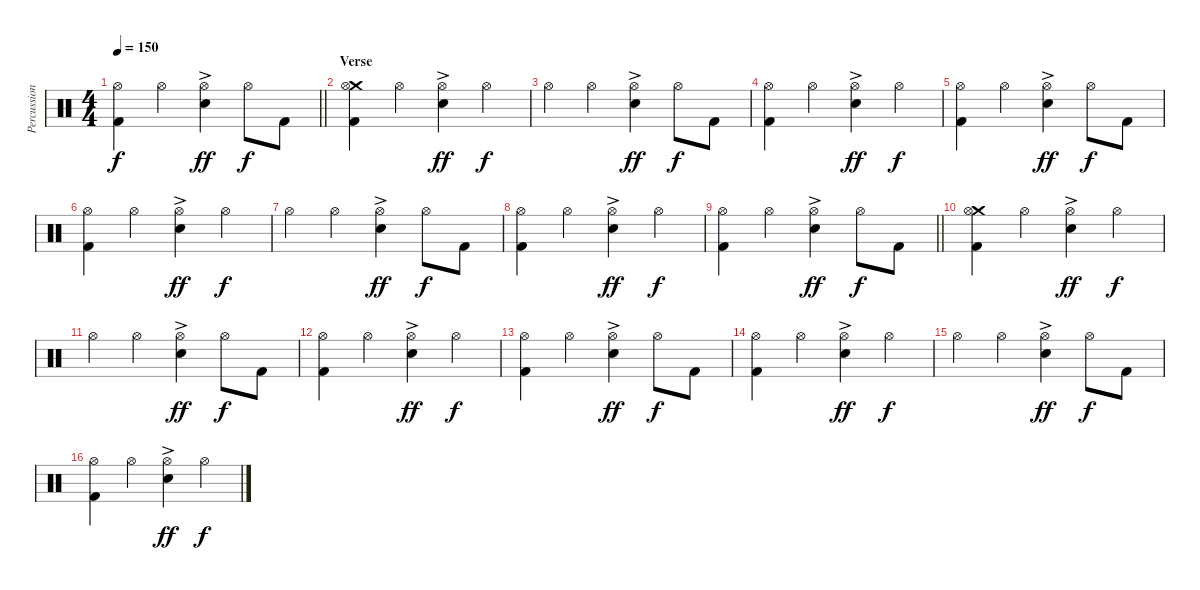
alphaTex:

\track ("Percussion" "Percussion") {instrument percussion}
\staff {score}
\articulation defaults
\ts (4 4)
\tempo 150
\clef neutral
\barLineRight lightlight
\ks c
("Hi-Hat (open)" "Kick (hit) 2").4{dy f} "Hi-Hat (open)".4 ("Hi-Hat (open)" "Electric Snare (hit)"{ac}).4{dy ff} "Hi-Hat (open)".8{dy f} "Kick (hit) 2".8 |
\section ("" "Verse")
("Crash medium (hit)" "Hi-Hat (open)" "Kick (hit) 2").4 "Hi-Hat (open)".4 ("Hi-Hat (open)" "Electric Snare (hit)"{ac}).4{dy ff} "Hi-Hat (open)".4{dy f} |
"Hi-Hat (open)".4 "Hi-Hat (open)".4 ("Hi-Hat (open)" "Electric Snare (hit)"{ac}).4{dy ff} "Hi-Hat (open)".8{dy f} "Kick (hit) 2".8 |
("Hi-Hat (open)" "Kick (hit) 2").4 "Hi-Hat (open)".4 ("Hi-Hat (open)" "Electric Snare (hit)"{ac}).4{dy ff} "Hi-Hat (open)".4{dy f} |
("Hi-Hat (open)" "Kick (hit) 2").4 "Hi-Hat (open)".4 ("Hi-Hat (open)" "Electric Snare (hit)"{ac}).4{dy ff} "Hi-Hat (open)".8{dy f} "Kick (hit) 2".8 |
("Hi-Hat (open)" "Kick (hit) 2").4 "Hi-Hat (open)".4 ("Hi-Hat (open)" "Electric Snare (hit)"{ac}).4{dy ff} "Hi-Hat (open)".4{dy f} |
"Hi-Hat (open)".4 "Hi-Hat (open)".4 ("Hi-Hat (open)" "Electric Snare (hit)"{ac}).4{dy ff} "Hi-Hat (open)".8{dy f} "Kick (hit) 2".8 |
("Hi-Hat (open)" "Kick (hit) 2").4 "Hi-Hat (open)".4 ("Hi-Hat (open)" "Electric Snare (hit)"{ac}).4{dy ff} "Hi-Hat (open)".4{dy f} |
\barLineRight lightlight
("Hi-Hat (open)" "Kick (hit) 2").4 "Hi-Hat (open)".4 ("Hi-Hat (open)" "Electric Snare (hit)"{ac}).4{dy ff} "Hi-Hat (open)".8{dy f} "Kick (hit) 2".8 |
("Crash medium (hit)" "Hi-Hat (open)" "Kick (hit) 2").4 "Hi-Hat (open)".4 ("Hi-Hat (open)" "Electric Snare (hit)"{ac}).4{dy ff} "Hi-Hat (open)".4{dy f} |
"Hi-Hat (open)".4 "Hi-Hat (open)".4 ("Hi-Hat (open)" "Electric Snare (hit)"{ac}).4{dy ff} "Hi-Hat (open)".8{dy f} "Kick (hit) 2".8 |
("Hi-Hat (open)" "Kick (hit) 2").4 "Hi-Hat (open)".4 ("Hi-Hat (open)" "Electric Snare (hit)"{ac}).4{dy ff} "Hi-Hat (open)".4{dy f} |
("Hi-Hat (open)" "Kick (hit) 2").4 "Hi-Hat (open)".4 ("Hi-Hat (open)" "Electric Snare (hit)"{ac}).4{dy ff} "Hi-Hat (open)".8{dy f} "Kick (hit) 2".8 |
("Hi-Hat (open)" "Kick (hit) 2").4 "Hi-Hat (open)".4 ("Hi-Hat (open)" "Electric Snare (hit)"{ac}).4{dy ff} "Hi-Hat (open)".4{dy f} |
"Hi-Hat (open)".4 "Hi-Hat (open)".4 ("Hi-Hat (open)" "Electric Snare (hit)"{ac}).4{dy ff} "Hi-Hat (open)".8{dy f} "Kick (hit) 2".8 |
("Hi-Hat (open)" "Kick (hit) 2").4 "Hi-Hat (open)".4 ("Hi-Hat (open)" "Electric Snare (hit)"{ac}).4{dy ff} "Hi-Hat (open)".4{dy f}
